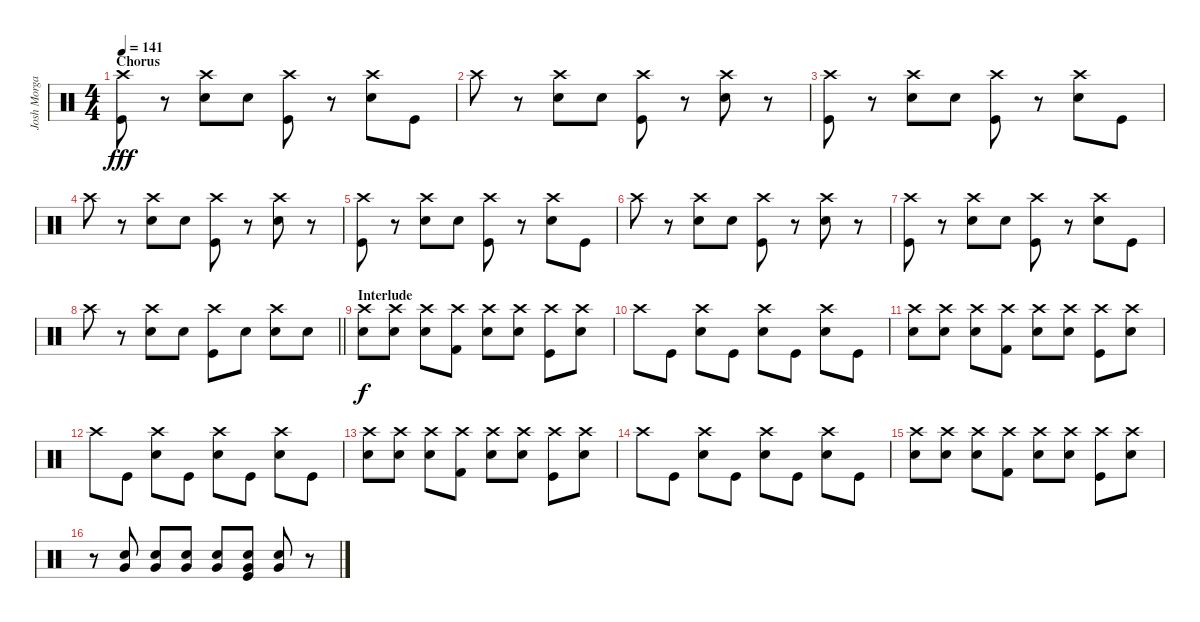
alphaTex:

\track ("Josh Morgan" "Josh Morga") {instrument percussion}
\staff {score}
\articulation defaults
\ts (4 4)
\section ("" "Chorus")
\tempo 141
\clef neutral
\ks c
("Crash high (hit)" "Kick (hit)").8{dy fff} r.8 ("Crash high (hit)" "Electric Snare (hit)").8 "Electric Snare (hit)".8 ("Crash high (hit)" "Kick (hit)").8 r.8 ("Crash high (hit)" "Electric Snare (hit)").8 "Kick (hit)".8 |
"Crash high (hit)".8 r.8 ("Crash high (hit)" "Electric Snare (hit)").8 "Electric Snare (hit)".8 ("Crash high (hit)" "Kick (hit)").8 r.8 ("Crash high (hit)" "Electric Snare (hit)").8 r.8 |
("Crash high (hit)" "Kick (hit)").8 r.8 ("Crash high (hit)" "Electric Snare (hit)").8 "Electric Snare (hit)".8 ("Crash high (hit)" "Kick (hit)").8 r.8 ("Crash high (hit)" "Electric Snare (hit)").8 "Kick (hit)".8 |
"Crash high (hit)".8 r.8 ("Crash high (hit)" "Electric Snare (hit)").8 "Electric Snare (hit)".8 ("Crash high (hit)" "Kick (hit)").8 r.8 ("Crash high (hit)" "Electric Snare (hit)").8 r.8 |
("Crash high (hit)" "Kick (hit)").8 r.8 ("Crash high (hit)" "Electric Snare (hit)").8 "Electric Snare (hit)".8 ("Crash high (hit)" "Kick (hit)").8 r.8 ("Crash high (hit)" "Electric Snare (hit)").8 "Kick (hit)".8 |
"Crash high (hit)".8 r.8 ("Crash high (hit)" "Electric Snare (hit)").8 "Electric Snare (hit)".8 ("Crash high (hit)" "Kick (hit)").8 r.8 ("Crash high (hit)" "Electric Snare (hit)").8 r.8 |
("Crash high (hit)" "Kick (hit)").8 r.8 ("Crash high (hit)" "Electric Snare (hit)").8 "Electric Snare (hit)".8 ("Crash high (hit)" "Kick (hit)").8 r.8 ("Crash high (hit)" "Electric Snare (hit)").8 "Kick (hit)".8 |
\barLineRight lightlight "Crash high (hit)".8
r.8 ("Crash high (hit)" "Electric Snare (hit)").8 "Electric Snare (hit)".8 ("Crash high (hit)" "Kick (hit)").8 "Electric Snare (hit)".8 ("Crash high (hit)" "Electric Snare (hit)").8 "Electric Snare (hit)".8 |
\section ("" "Interlude")
("Crash high (hit)" "Electric Snare (hit)").8{dy f} ("Crash high (hit)" "Electric Snare (hit)").8 ("Crash high (hit)" "Electric Snare (hit)").8 ("Crash high (hit)" "Kick (hit) 2").8 ("Crash high (hit)" "Electric Snare (hit)").8 ("Crash high (hit)" "Electric Snare (hit)").8 ("Crash high (hit)" "Kick (hit)").8 ("Crash high (hit)" "Electric Snare (hit)").8 |
"Crash high (hit)".8 "Kick (hit)".8 ("Crash high (hit)" "Electric Snare (hit)").8 "Kick (hit)".8 ("Crash high (hit)" "Electric Snare (hit)").8 "Kick (hit)".8 ("Crash high (hit)" "Electric Snare (hit)").8 "Kick (hit)".8 |
("Crash high (hit)" "Electric Snare (hit)").8 ("Crash high (hit)" "Electric Snare (hit)").8 ("Crash high (hit)" "Electric Snare (hit)").8 ("Crash high (hit)" "Kick (hit) 2").8 ("Crash high (hit)" "Electric Snare (hit)").8 ("Crash high (hit)" "Electric Snare (hit)").8 ("Crash high (hit)" "Kick (hit)").8 ("Crash high (hit)" "Electric Snare (hit)").8 |
"Crash high (hit)".8 "Kick (hit)".8 ("Crash high (hit)" "Electric Snare (hit)").8 "Kick (hit)".8 ("Crash high (hit)" "Electric Snare (hit)").8 "Kick (hit)".8 ("Crash high (hit)" "Electric Snare (hit)").8 "Kick (hit)".8 |
("Crash high (hit)" "Electric Snare (hit)").8 ("Crash high (hit)" "Electric Snare (hit)").8 ("Crash high (hit)" "Electric Snare (hit)").8 ("Crash high (hit)" "Kick (hit) 2").8 ("Crash high (hit)" "Electric Snare (hit)").8 ("Crash high (hit)" "Electric Snare (hit)").8 ("Crash high (hit)" "Kick (hit)").8 ("Crash high (hit)" "Electric Snare (hit)").8 |
"Crash high (hit)".8 "Kick (hit)".8 ("Crash high (hit)" "Electric Snare (hit)").8 "Kick (hit)".8 ("Crash high (hit)" "Electric Snare (hit)").8 "Kick (hit)".8 ("Crash high (hit)" "Electric Snare (hit)").8 "Kick (hit)".8 |
("Crash high (hit)" "Electric Snare (hit)").8 ("Crash high (hit)" "Electric Snare (hit)").8 ("Crash high (hit)" "Electric Snare (hit)").8 ("Crash high (hit)" "Kick (hit) 2").8 ("Crash high (hit)" "Electric Snare (hit)").8 ("Crash high (hit)" "Electric Snare (hit)").8 ("Crash high (hit)" "Kick (hit)").8 ("Crash high (hit)" "Electric Snare (hit)").8 |
r.8 ("Electric Snare (hit)" "Very Low Tom (hit)").8 ("Electric Snare (hit)" "Very Low Tom (hit)").8 ("Electric Snare (hit)" "Very Low Tom (hit)").8 ("Electric Snare (hit)" "Very Low Tom (hit)").8 ("Electric Snare (hit)" "Very Low Tom (hit)" "Kick (hit)").8 ("Electric Snare (hit)" "Very Low Tom (hit)").8 r.8
